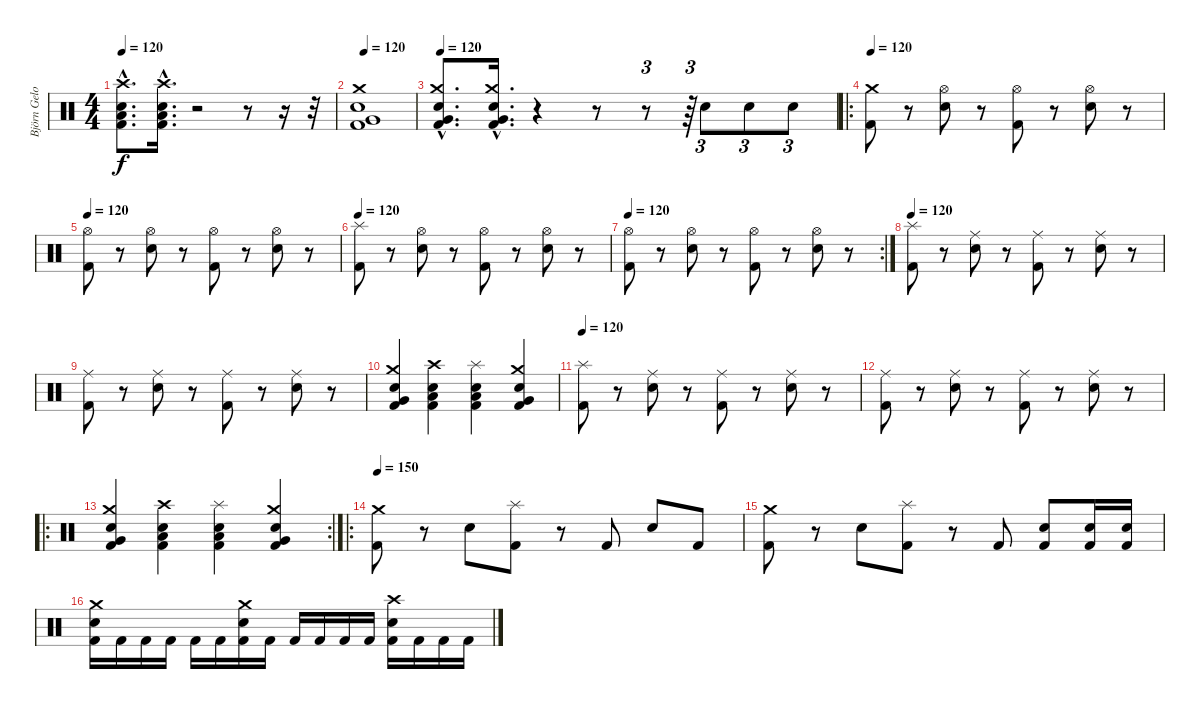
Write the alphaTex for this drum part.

\track ("Björn Gelotte" "Björn Gelo") {instrument percussion}
\staff {score}
\articulation defaults
\ts (4 4)
\tempo 120
\clef neutral
\ks c
("Crash high (hit)"{hac} "Electric Snare (hit)"{hac} "Low Floor Tom (hit)"{hac} "Kick (hit) 2"{hac}).8{d dy f} ("Crash high (hit)"{hac} "Electric Snare (hit)"{hac} "Low Floor Tom (hit)"{hac} "Kick (hit) 2"{hac}).16{d} r.2 r.8 r.16 r.32 |
\tempo 120
("Crash medium (hit)" "Electric Snare (hit)" "Very Low Tom (hit)" "Kick (hit) 2").1 |
\tempo 120
("Crash medium (hit)"{hac} "Electric Snare (hit)"{hac} "Very Low Tom (hit)"{hac} "Kick (hit) 2"{hac}).8{d} ("Crash medium (hit)"{hac} "Electric Snare (hit)"{hac} "Very Low Tom (hit)"{hac} "Kick (hit) 2"{hac}).16{d} r.4 r.8 r.8{tu (3 2)} r.64{tu (3 2)} "Electric Snare (hit)".8{tu (3 2)} "Electric Snare (hit)".8{tu (3 2)} "Electric Snare (hit)".8{tu (3 2)} |
\ro
\tempo 120
("Crash medium (hit)" "Kick (hit) 2").8 r.8 ("Hi-Hat (open)" "Electric Snare (hit)").8 r.8 ("Hi-Hat (open)" "Kick (hit) 2").8 r.8 ("Hi-Hat (open)" "Electric Snare (hit)").8 r.8 |
\tempo 120
("Hi-Hat (open)" "Kick (hit) 2").8 r.8 ("Hi-Hat (open)" "Electric Snare (hit)").8 r.8 ("Hi-Hat (open)" "Kick (hit) 2").8 r.8 ("Hi-Hat (open)" "Electric Snare (hit)").8 r.8 |
\tempo 120
("Splash (hit)" "Kick (hit) 2").8 r.8 ("Hi-Hat (open)" "Electric Snare (hit)").8 r.8 ("Hi-Hat (open)" "Kick (hit) 2").8 r.8 ("Hi-Hat (open)" "Electric Snare (hit)").8 r.8 |
\rc 2
\tempo 120
("Hi-Hat (open)" "Kick (hit) 2").8 r.8 ("Hi-Hat (open)" "Electric Snare (hit)").8 r.8 ("Hi-Hat (open)" "Kick (hit) 2").8 r.8 ("Hi-Hat (open)" "Electric Snare (hit)").8 r.8 |
\tempo 120
("Splash (hit)" "Kick (hit) 2").8 r.8 ("Ride (middle)" "Electric Snare (hit)").8 r.8 ("Ride (middle)" "Kick (hit) 2").8 r.8 ("Ride (middle)" "Electric Snare (hit)").8 r.8 |
("Ride (middle)" "Kick (hit) 2").8 r.8 ("Ride (middle)" "Electric Snare (hit)").8 r.8 ("Ride (middle)" "Kick (hit) 2").8 r.8 ("Ride (middle)" "Electric Snare (hit)").8 r.8 |
("Crash medium (hit)" "Electric Snare (hit)" "Very Low Tom (hit)" "Kick (hit) 2").4 ("Crash high (hit)" "Electric Snare (hit)" "Low Floor Tom (hit)" "Kick (hit) 2").4 ("Splash (hit)" "Electric Snare (hit)" "Low Tom (hit)" "Kick (hit) 2").4 ("Crash medium (hit)" "Electric Snare (hit)" "Very Low Tom (hit)" "Kick (hit) 2").4 |
\tempo 120
("Splash (hit)" "Kick (hit) 2").8 r.8 ("Ride (middle)" "Electric Snare (hit)").8 r.8 ("Ride (middle)" "Kick (hit) 2").8 r.8 ("Ride (middle)" "Electric Snare (hit)").8 r.8 |
("Ride (middle)" "Kick (hit) 2").8 r.8 ("Ride (middle)" "Electric Snare (hit)").8 r.8 ("Ride (middle)" "Kick (hit) 2").8 r.8 ("Ride (middle)" "Electric Snare (hit)").8 r.8 |
\ro
\rc 2
("Crash medium (hit)" "Electric Snare (hit)" "Very Low Tom (hit)" "Kick (hit) 2").4 ("Crash high (hit)" "Electric Snare (hit)" "Low Floor Tom (hit)" "Kick (hit) 2").4 ("Splash (hit)" "Electric Snare (hit)" "Low Tom (hit)" "Kick (hit) 2").4 ("Crash medium (hit)" "Electric Snare (hit)" "Very Low Tom (hit)" "Kick (hit) 2").4 |
\ro
\tempo 150
("Crash medium (hit)" "Kick (hit) 2").8 r.8 "Electric Snare (hit)".8 ("Splash (hit)" "Kick (hit) 2").8 r.8 "Kick (hit) 2".8 "Electric Snare (hit)".8 "Kick (hit) 2".8 |
("Crash medium (hit)" "Kick (hit) 2").8 r.8 "Electric Snare (hit)".8 ("Splash (hit)" "Kick (hit) 2").8 r.8 "Kick (hit) 2".8 ("Electric Snare (hit)" "Kick (hit) 2").8 ("Electric Snare (hit)" "Kick (hit) 2").16 ("Electric Snare (hit)" "Kick (hit) 2").16 |
("Crash medium (hit)" "Electric Snare (hit)" "Kick (hit) 2").16 "Kick (hit) 2".16 "Kick (hit) 2".16 "Kick (hit) 2".16 "Kick (hit) 2".16 "Kick (hit) 2".16 ("Crash medium (hit)" "Electric Snare (hit)" "Kick (hit) 2").16 "Kick (hit) 2".16 "Kick (hit) 2".16 "Kick (hit) 2".16 "Kick (hit) 2".16 "Kick (hit) 2".16 ("Crash high (hit)" "Electric Snare (hit)" "Kick (hit) 2").16 "Kick (hit) 2".16 "Kick (hit) 2".16 "Kick (hit) 2".16
